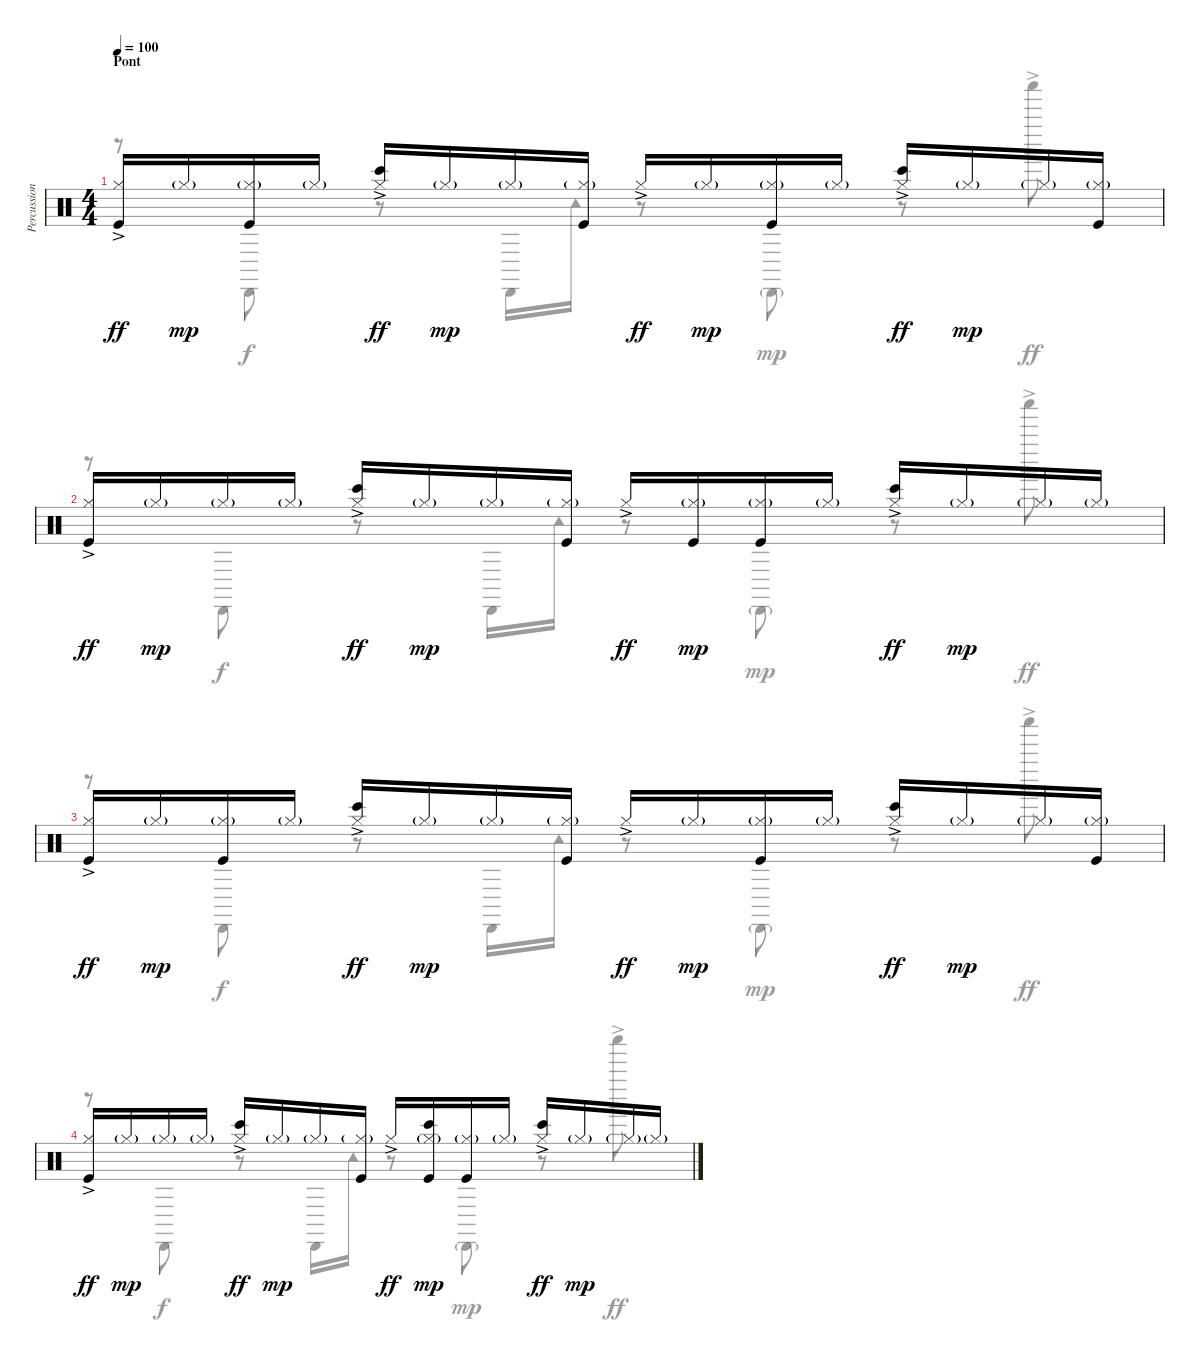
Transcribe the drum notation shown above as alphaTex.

\track ("Percussions" "Percussion") {instrument percussion}
\staff {score}
\articulation defaults
\voice
\ts (4 4)
\section ("" "Pont")
\tempo 100
\clef neutral
\ks c
("Kick (hit)" "Hi-Hat (closed)"{ac}).16{dy ff} "Hi-Hat (closed)"{g}.16{dy mp} ("Kick (hit)" "Hi-Hat (closed)"{g}).16 "Hi-Hat (closed)"{g}.16 ("Bongo High (hit)" "Hi-Hat (closed)"{ac}).16{dy ff} "Hi-Hat (closed)"{g}.16{dy mp} "Hi-Hat (closed)"{g}.16 ("Kick (hit)" "Hi-Hat (closed)"{g}).16 "Hi-Hat (closed)"{ac}.16{dy ff} "Hi-Hat (closed)"{g}.16{dy mp} ("Kick (hit)" "Hi-Hat (closed)"{g}).16 "Hi-Hat (closed)"{g}.16 ("Bongo High (hit)" "Hi-Hat (closed)"{ac}).16{dy ff} "Hi-Hat (closed)"{g}.16{dy mp} "Hi-Hat (closed)"{g}.16 ("Kick (hit)" "Hi-Hat (closed)"{g}).16 |
("Kick (hit)" "Hi-Hat (closed)"{ac}).16{dy ff} "Hi-Hat (closed)"{g}.16{dy mp} "Hi-Hat (closed)"{g}.16 "Hi-Hat (closed)"{g}.16 ("Bongo High (hit)" "Hi-Hat (closed)"{ac}).16{dy ff} "Hi-Hat (closed)"{g}.16{dy mp} "Hi-Hat (closed)"{g}.16 ("Kick (hit)" "Hi-Hat (closed)"{g}).16 "Hi-Hat (closed)"{ac}.16{dy ff} ("Kick (hit)" "Hi-Hat (closed)"{g}).16{dy mp} ("Kick (hit)" "Hi-Hat (closed)"{g}).16 "Hi-Hat (closed)"{g}.16 ("Bongo High (hit)" "Hi-Hat (closed)"{ac}).16{dy ff} "Hi-Hat (closed)"{g}.16{dy mp} "Hi-Hat (closed)"{g}.16 "Hi-Hat (closed)"{g}.16 |
("Kick (hit)" "Hi-Hat (closed)"{ac}).16{dy ff} "Hi-Hat (closed)"{g}.16{dy mp} ("Kick (hit)" "Hi-Hat (closed)"{g}).16 "Hi-Hat (closed)"{g}.16 ("Bongo High (hit)" "Hi-Hat (closed)"{ac}).16{dy ff} "Hi-Hat (closed)"{g}.16{dy mp} "Hi-Hat (closed)"{g}.16 ("Kick (hit)" "Hi-Hat (closed)"{g}).16 "Hi-Hat (closed)"{ac}.16{dy ff} "Hi-Hat (closed)"{g}.16{dy mp} ("Kick (hit)" "Hi-Hat (closed)"{g}).16 "Hi-Hat (closed)"{g}.16 ("Bongo High (hit)" "Hi-Hat (closed)"{ac}).16{dy ff} "Hi-Hat (closed)"{g}.16{dy mp} "Hi-Hat (closed)"{g}.16 ("Kick (hit)" "Hi-Hat (closed)"{g}).16 |
("Kick (hit)" "Hi-Hat (closed)"{ac}).16{dy ff} "Hi-Hat (closed)"{g}.16{dy mp} "Hi-Hat (closed)"{g}.16 "Hi-Hat (closed)"{g}.16 ("Bongo High (hit)" "Hi-Hat (closed)"{ac}).16{dy ff} "Hi-Hat (closed)"{g}.16{dy mp} "Hi-Hat (closed)"{g}.16 ("Kick (hit)" "Hi-Hat (closed)"{g}).16 "Hi-Hat (closed)"{ac}.16{dy ff} ("Kick (hit)" "Bongo High (hit)" "Hi-Hat (closed)"{g}).16{dy mp} ("Kick (hit)" "Hi-Hat (closed)"{g}).16 "Hi-Hat (closed)"{g}.16 ("Bongo High (hit)" "Hi-Hat (closed)"{ac}).16{dy ff} "Hi-Hat (closed)"{g}.16{dy mp} "Hi-Hat (closed)"{g}.16 "Hi-Hat (closed)"{g}.16
\voice
\clef neutral
\ottava regular
\simile none
\ks c
r.8{dy mp} "Cabasa (hit)".8{dy f} r.8 "Cabasa (hit)".16 "Tambourine (hit)".16 r.8 "Cabasa (hit)"{g}.8{dy mp} r.8 "Shaker (hit)"{ac}.8{dy ff} |
r.8 "Cabasa (hit)".8{dy f} r.8 "Cabasa (hit)".16 "Tambourine (hit)".16 r.8 "Cabasa (hit)"{g}.8{dy mp} r.8 "Shaker (hit)"{ac}.8{dy ff} |
r.8 "Cabasa (hit)".8{dy f} r.8 "Cabasa (hit)".16 "Tambourine (hit)".16 r.8 "Cabasa (hit)"{g}.8{dy mp} r.8 "Shaker (hit)"{ac}.8{dy ff} |
r.8 "Cabasa (hit)".8{dy f} r.8 "Cabasa (hit)".16 "Tambourine (hit)".16 r.8 "Cabasa (hit)"{g}.8{dy mp} r.8 "Shaker (hit)"{ac}.8{dy ff}
